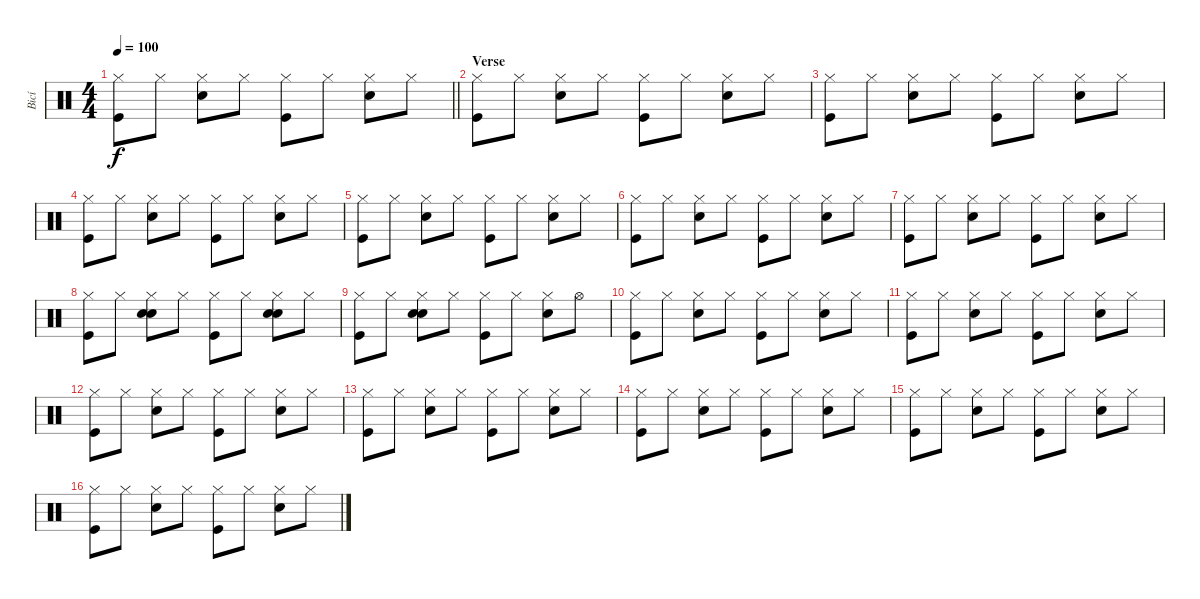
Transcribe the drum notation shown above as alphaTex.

\track ("Bicí" "Bicí") {instrument percussion}
\staff {score}
\articulation defaults
\ts (4 4)
\tempo 100
\clef neutral
\barLineRight lightlight
\ks c
("Hi-Hat (closed)" "Kick (hit)").8{dy f} "Hi-Hat (closed)".8 ("Hi-Hat (closed)" "Electric Snare (hit)").8 "Hi-Hat (closed)".8 ("Hi-Hat (closed)" "Kick (hit)").8 "Hi-Hat (closed)".8 ("Hi-Hat (closed)" "Electric Snare (hit)").8 "Hi-Hat (closed)".8 |
\section ("" "Verse")
("Hi-Hat (closed)" "Kick (hit)").8 "Hi-Hat (closed)".8 ("Hi-Hat (closed)" "Electric Snare (hit)").8 "Hi-Hat (closed)".8 ("Hi-Hat (closed)" "Kick (hit)").8 "Hi-Hat (closed)".8 ("Hi-Hat (closed)" "Electric Snare (hit)").8 "Hi-Hat (closed)".8 |
("Hi-Hat (closed)" "Kick (hit)").8 "Hi-Hat (closed)".8 ("Hi-Hat (closed)" "Electric Snare (hit)").8 "Hi-Hat (closed)".8 ("Hi-Hat (closed)" "Kick (hit)").8 "Hi-Hat (closed)".8 ("Hi-Hat (closed)" "Electric Snare (hit)").8 "Hi-Hat (closed)".8 |
("Hi-Hat (closed)" "Kick (hit)").8 "Hi-Hat (closed)".8 ("Hi-Hat (closed)" "Electric Snare (hit)").8 "Hi-Hat (closed)".8 ("Hi-Hat (closed)" "Kick (hit)").8 "Hi-Hat (closed)".8 ("Hi-Hat (closed)" "Electric Snare (hit)").8 "Hi-Hat (closed)".8 |
("Hi-Hat (closed)" "Kick (hit)").8 "Hi-Hat (closed)".8 ("Hi-Hat (closed)" "Electric Snare (hit)").8 "Hi-Hat (closed)".8 ("Hi-Hat (closed)" "Kick (hit)").8 "Hi-Hat (closed)".8 ("Hi-Hat (closed)" "Electric Snare (hit)").8 "Hi-Hat (closed)".8 |
("Hi-Hat (closed)" "Kick (hit)").8 "Hi-Hat (closed)".8 ("Hi-Hat (closed)" "Electric Snare (hit)").8 "Hi-Hat (closed)".8 ("Hi-Hat (closed)" "Kick (hit)").8 "Hi-Hat (closed)".8 ("Hi-Hat (closed)" "Electric Snare (hit)").8 "Hi-Hat (closed)".8 |
("Hi-Hat (closed)" "Kick (hit)").8 "Hi-Hat (closed)".8 ("Hi-Hat (closed)" "Electric Snare (hit)").8 "Hi-Hat (closed)".8 ("Hi-Hat (closed)" "Kick (hit)").8 "Hi-Hat (closed)".8 ("Hi-Hat (closed)" "Electric Snare (hit)").8 "Hi-Hat (closed)".8 |
("Hi-Hat (closed)" "Kick (hit)").8 "Hi-Hat (closed)".8 ("Hi-Hat (closed)" "Hand Clap (hit)" "Electric Snare (hit)").8 "Hi-Hat (closed)".8 ("Hi-Hat (closed)" "Kick (hit)").8 "Hi-Hat (closed)".8 ("Hi-Hat (closed)" "Hand Clap (hit)" "Electric Snare (hit)").8 "Hi-Hat (closed)".8 |
("Hi-Hat (closed)" "Kick (hit)").8 "Hi-Hat (closed)".8 ("Hi-Hat (closed)" "Hand Clap (hit)" "Electric Snare (hit)").8 "Hi-Hat (closed)".8 ("Hi-Hat (closed)" "Kick (hit)").8 "Hi-Hat (closed)".8 ("Hi-Hat (closed)" "Electric Snare (hit)").8 "Hi-Hat (open)".8 |
("Hi-Hat (closed)" "Kick (hit)").8 "Hi-Hat (closed)".8 ("Hi-Hat (closed)" "Electric Snare (hit)").8 "Hi-Hat (closed)".8 ("Hi-Hat (closed)" "Kick (hit)").8 "Hi-Hat (closed)".8 ("Hi-Hat (closed)" "Electric Snare (hit)").8 "Hi-Hat (closed)".8 |
("Hi-Hat (closed)" "Kick (hit)").8 "Hi-Hat (closed)".8 ("Hi-Hat (closed)" "Electric Snare (hit)").8 "Hi-Hat (closed)".8 ("Hi-Hat (closed)" "Kick (hit)").8 "Hi-Hat (closed)".8 ("Hi-Hat (closed)" "Electric Snare (hit)").8 "Hi-Hat (closed)".8 |
("Hi-Hat (closed)" "Kick (hit)").8 "Hi-Hat (closed)".8 ("Hi-Hat (closed)" "Electric Snare (hit)").8 "Hi-Hat (closed)".8 ("Hi-Hat (closed)" "Kick (hit)").8 "Hi-Hat (closed)".8 ("Hi-Hat (closed)" "Electric Snare (hit)").8 "Hi-Hat (closed)".8 |
("Hi-Hat (closed)" "Kick (hit)").8 "Hi-Hat (closed)".8 ("Hi-Hat (closed)" "Electric Snare (hit)").8 "Hi-Hat (closed)".8 ("Hi-Hat (closed)" "Kick (hit)").8 "Hi-Hat (closed)".8 ("Hi-Hat (closed)" "Electric Snare (hit)").8 "Hi-Hat (closed)".8 |
("Hi-Hat (closed)" "Kick (hit)").8 "Hi-Hat (closed)".8 ("Hi-Hat (closed)" "Electric Snare (hit)").8 "Hi-Hat (closed)".8 ("Hi-Hat (closed)" "Kick (hit)").8 "Hi-Hat (closed)".8 ("Hi-Hat (closed)" "Electric Snare (hit)").8 "Hi-Hat (closed)".8 |
("Hi-Hat (closed)" "Kick (hit)").8 "Hi-Hat (closed)".8 ("Hi-Hat (closed)" "Electric Snare (hit)").8 "Hi-Hat (closed)".8 ("Hi-Hat (closed)" "Kick (hit)").8 "Hi-Hat (closed)".8 ("Hi-Hat (closed)" "Electric Snare (hit)").8 "Hi-Hat (closed)".8 |
("Hi-Hat (closed)" "Kick (hit)").8 "Hi-Hat (closed)".8 ("Hi-Hat (closed)" "Electric Snare (hit)").8 "Hi-Hat (closed)".8 ("Hi-Hat (closed)" "Kick (hit)").8 "Hi-Hat (closed)".8 ("Hi-Hat (closed)" "Electric Snare (hit)").8 "Hi-Hat (closed)".8
